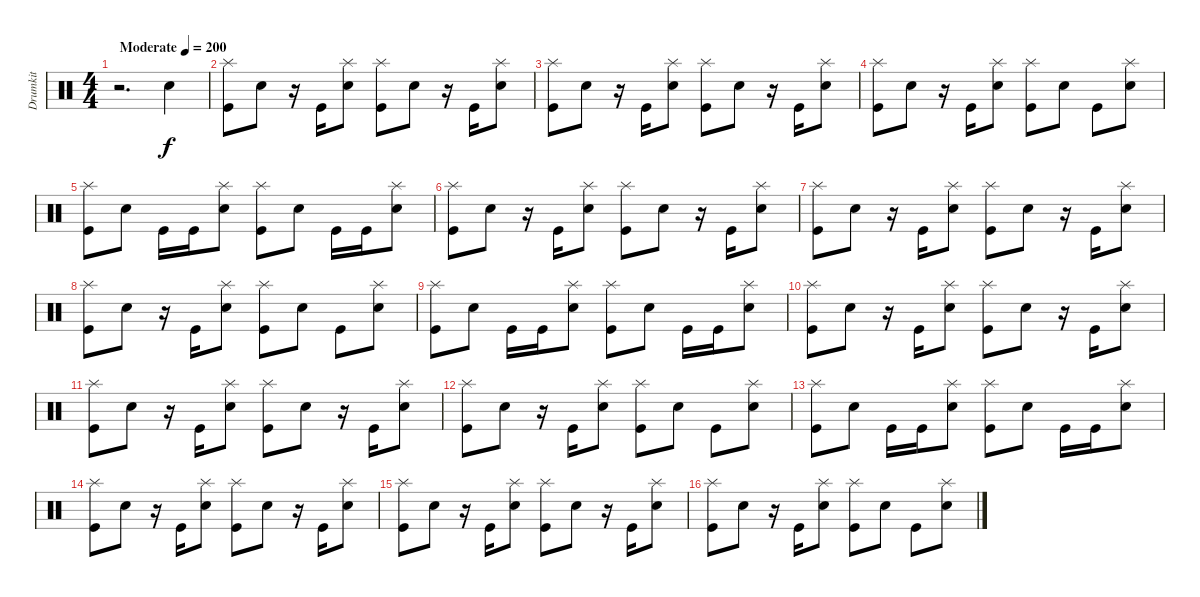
\track ("Drumkit" "Drumkit") {instrument percussion}
\staff {score}
\articulation defaults
\ts (4 4)
\tempo (200 "Moderate")
\clef neutral
\ks c
r.2{d dy f} "Snare (hit) 2".4 |
("Kick (hit)" "Splash (hit)").8 "Snare (hit) 2".8 r.16 "Kick (hit)".16 ("Snare (hit) 2" "Splash (hit)").8 ("Kick (hit)" "Splash (hit)").8 "Snare (hit) 2".8 r.16 "Kick (hit)".16 ("Snare (hit) 2" "Splash (hit)").8 |
("Kick (hit)" "Splash (hit)").8 "Snare (hit) 2".8 r.16 "Kick (hit)".16 ("Snare (hit) 2" "Splash (hit)").8 ("Kick (hit)" "Splash (hit)").8 "Snare (hit) 2".8 r.16 "Kick (hit)".16 ("Snare (hit) 2" "Splash (hit)").8 |
("Kick (hit)" "Splash (hit)").8 "Snare (hit) 2".8 r.16 "Kick (hit)".16 ("Snare (hit) 2" "Splash (hit)").8 ("Kick (hit)" "Splash (hit)").8 "Snare (hit) 2".8 "Kick (hit)".8 ("Snare (hit) 2" "Splash (hit)").8 |
("Kick (hit)" "Splash (hit)").8 "Snare (hit) 2".8 "Kick (hit)".16 "Kick (hit)".16 ("Snare (hit) 2" "Splash (hit)").8 ("Kick (hit)" "Splash (hit)").8 "Snare (hit) 2".8 "Kick (hit)".16 "Kick (hit)".16 ("Snare (hit) 2" "Splash (hit)").8 |
("Kick (hit)" "Splash (hit)").8 "Snare (hit) 2".8 r.16 "Kick (hit)".16 ("Snare (hit) 2" "Splash (hit)").8 ("Kick (hit)" "Splash (hit)").8 "Snare (hit) 2".8 r.16 "Kick (hit)".16 ("Snare (hit) 2" "Splash (hit)").8 |
("Kick (hit)" "Splash (hit)").8 "Snare (hit) 2".8 r.16 "Kick (hit)".16 ("Snare (hit) 2" "Splash (hit)").8 ("Kick (hit)" "Splash (hit)").8 "Snare (hit) 2".8 r.16 "Kick (hit)".16 ("Snare (hit) 2" "Splash (hit)").8 |
("Kick (hit)" "Splash (hit)").8 "Snare (hit) 2".8 r.16 "Kick (hit)".16 ("Snare (hit) 2" "Splash (hit)").8 ("Kick (hit)" "Splash (hit)").8 "Snare (hit) 2".8 "Kick (hit)".8 ("Snare (hit) 2" "Splash (hit)").8 |
("Kick (hit)" "Splash (hit)").8 "Snare (hit) 2".8 "Kick (hit)".16 "Kick (hit)".16 ("Snare (hit) 2" "Splash (hit)").8 ("Kick (hit)" "Splash (hit)").8 "Snare (hit) 2".8 "Kick (hit)".16 "Kick (hit)".16 ("Snare (hit) 2" "Splash (hit)").8 |
("Kick (hit)" "Splash (hit)").8 "Snare (hit) 2".8 r.16 "Kick (hit)".16 ("Snare (hit) 2" "Splash (hit)").8 ("Kick (hit)" "Splash (hit)").8 "Snare (hit) 2".8 r.16 "Kick (hit)".16 ("Snare (hit) 2" "Splash (hit)").8 |
("Kick (hit)" "Splash (hit)").8 "Snare (hit) 2".8 r.16 "Kick (hit)".16 ("Snare (hit) 2" "Splash (hit)").8 ("Kick (hit)" "Splash (hit)").8 "Snare (hit) 2".8 r.16 "Kick (hit)".16 ("Snare (hit) 2" "Splash (hit)").8 |
("Kick (hit)" "Splash (hit)").8 "Snare (hit) 2".8 r.16 "Kick (hit)".16 ("Snare (hit) 2" "Splash (hit)").8 ("Kick (hit)" "Splash (hit)").8 "Snare (hit) 2".8 "Kick (hit)".8 ("Snare (hit) 2" "Splash (hit)").8 |
("Kick (hit)" "Splash (hit)").8 "Snare (hit) 2".8 "Kick (hit)".16 "Kick (hit)".16 ("Snare (hit) 2" "Splash (hit)").8 ("Kick (hit)" "Splash (hit)").8 "Snare (hit) 2".8 "Kick (hit)".16 "Kick (hit)".16 ("Snare (hit) 2" "Splash (hit)").8 |
("Kick (hit)" "Splash (hit)").8 "Snare (hit) 2".8 r.16 "Kick (hit)".16 ("Snare (hit) 2" "Splash (hit)").8 ("Kick (hit)" "Splash (hit)").8 "Snare (hit) 2".8 r.16 "Kick (hit)".16 ("Snare (hit) 2" "Splash (hit)").8 |
("Kick (hit)" "Splash (hit)").8 "Snare (hit) 2".8 r.16 "Kick (hit)".16 ("Snare (hit) 2" "Splash (hit)").8 ("Kick (hit)" "Splash (hit)").8 "Snare (hit) 2".8 r.16 "Kick (hit)".16 ("Snare (hit) 2" "Splash (hit)").8 |
("Kick (hit)" "Splash (hit)").8 "Snare (hit) 2".8 r.16 "Kick (hit)".16 ("Snare (hit) 2" "Splash (hit)").8 ("Kick (hit)" "Splash (hit)").8 "Snare (hit) 2".8 "Kick (hit)".8 ("Snare (hit) 2" "Splash (hit)").8
